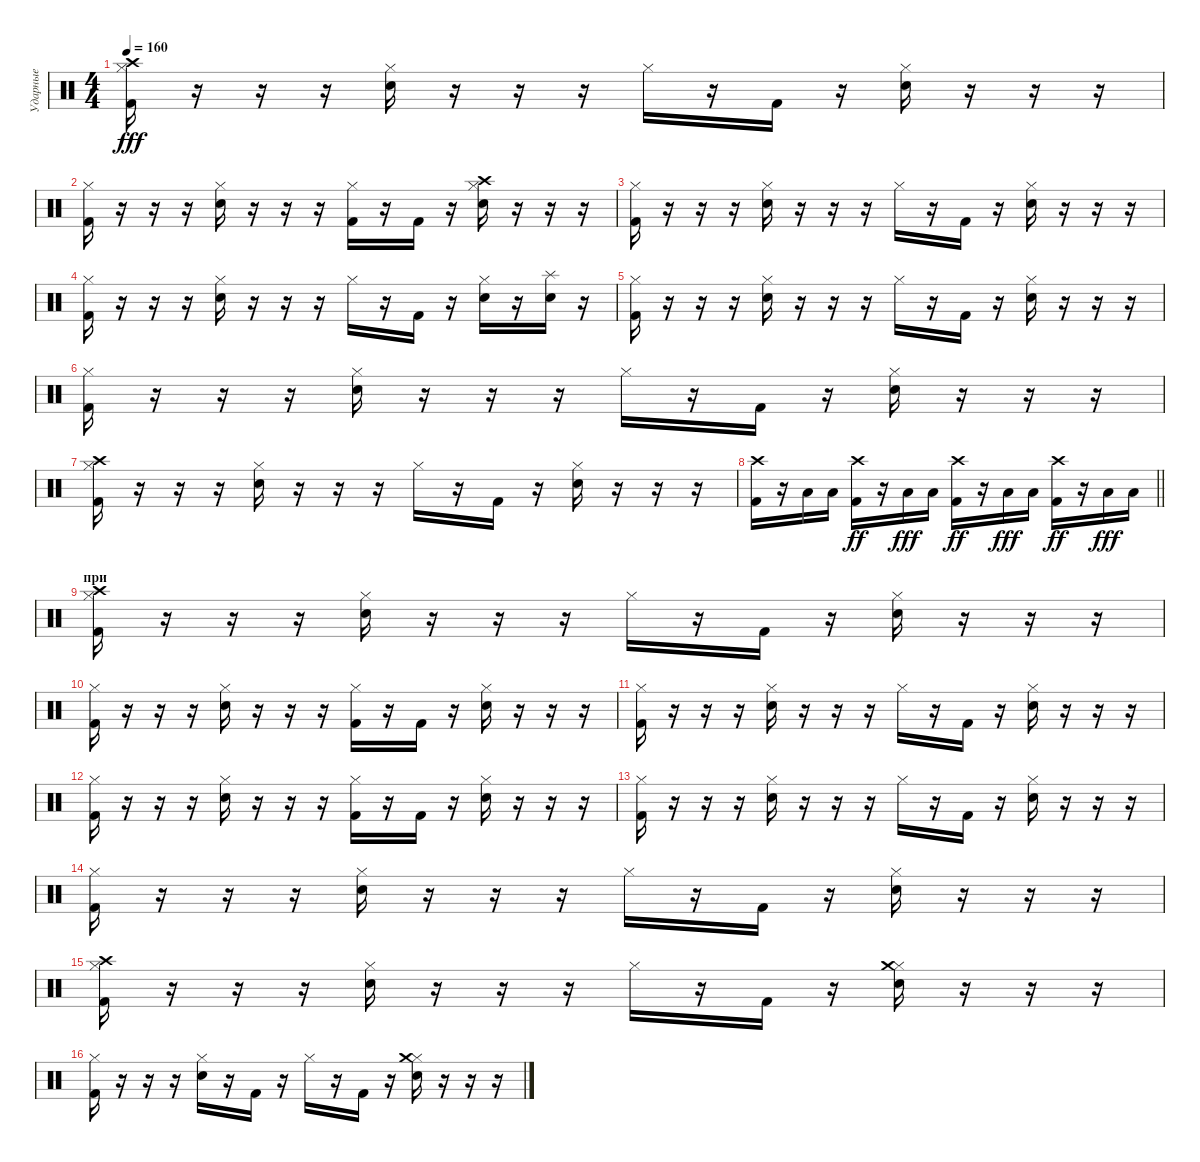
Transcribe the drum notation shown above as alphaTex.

\track ("Ударные" "Ударные") {instrument percussion}
\staff {score}
\articulation defaults
\ts (4 4)
\tempo 160
\clef neutral
\ks c
("Kick (hit) 2" "Hi-Hat (closed)" "Crash high (hit)").16{dy fff} r.16 r.16 r.16 ("Snare (hit) 2" "Hi-Hat (closed)").16 r.16 r.16 r.16 "Hi-Hat (closed)".16 r.16 "Kick (hit) 2".16 r.16 ("Snare (hit) 2" "Hi-Hat (closed)").16 r.16 r.16 r.16 |
("Kick (hit) 2" "Hi-Hat (closed)").16 r.16 r.16 r.16 ("Snare (hit) 2" "Hi-Hat (closed)").16 r.16 r.16 r.16 ("Kick (hit) 2" "Hi-Hat (closed)").16 r.16 "Kick (hit) 2".16 r.16 ("Snare (hit) 2" "Hi-Hat (closed)" "Crash high (hit)").16 r.16 r.16 r.16 |
("Kick (hit) 2" "Hi-Hat (closed)").16 r.16 r.16 r.16 ("Snare (hit) 2" "Hi-Hat (closed)").16 r.16 r.16 r.16 "Hi-Hat (closed)".16 r.16 "Kick (hit) 2".16 r.16 ("Snare (hit) 2" "Hi-Hat (closed)").16 r.16 r.16 r.16 |
("Kick (hit) 2" "Hi-Hat (closed)").16 r.16 r.16 r.16 ("Snare (hit) 2" "Hi-Hat (closed)").16 r.16 r.16 r.16 "Hi-Hat (closed)".16 r.16 "Kick (hit) 2".16 r.16 ("Snare (hit) 2" "Hi-Hat (closed)").16 r.16 ("Snare (hit) 2" "Splash (hit)").16 r.16 |
("Kick (hit) 2" "Hi-Hat (closed)").16 r.16 r.16 r.16 ("Snare (hit) 2" "Hi-Hat (closed)").16 r.16 r.16 r.16 "Hi-Hat (closed)".16 r.16 "Kick (hit) 2".16 r.16 ("Snare (hit) 2" "Hi-Hat (closed)").16 r.16 r.16 r.16 |
("Kick (hit) 2" "Hi-Hat (closed)").16 r.16 r.16 r.16 ("Snare (hit) 2" "Hi-Hat (closed)").16 r.16 r.16 r.16 "Hi-Hat (closed)".16 r.16 "Kick (hit) 2".16 r.16 ("Snare (hit) 2" "Hi-Hat (closed)").16 r.16 r.16 r.16 |
("Kick (hit) 2" "Hi-Hat (closed)" "Crash high (hit)").16 r.16 r.16 r.16 ("Snare (hit) 2" "Hi-Hat (closed)").16 r.16 r.16 r.16 "Hi-Hat (closed)".16 r.16 "Kick (hit) 2".16 r.16 ("Snare (hit) 2" "Hi-Hat (closed)").16 r.16 r.16 r.16 |
\barLineRight lightlight
("Crash high (hit)" "Kick (hit) 2").16 r.16 "Low Tom (hit)".16 "Low Tom (hit)".16 ("Kick (hit) 2" "Crash high (hit)").16{dy ff} r.16 "Low Tom (hit)".16{dy fff} "Low Tom (hit)".16 ("Kick (hit) 2" "Crash high (hit)").16{dy ff} r.16 "Low Tom (hit)".16{dy fff} "Low Tom (hit)".16 ("Kick (hit) 2" "Crash high (hit)").16{dy ff} r.16 "Low Tom (hit)".16{dy fff} "Low Tom (hit)".16 |
\section ("" "при")
("Kick (hit) 2" "Hi-Hat (closed)" "Crash high (hit)").16 r.16 r.16 r.16 ("Snare (hit) 2" "Hi-Hat (closed)").16 r.16 r.16 r.16 "Hi-Hat (closed)".16 r.16 "Kick (hit) 2".16 r.16 ("Snare (hit) 2" "Hi-Hat (closed)").16 r.16 r.16 r.16 |
("Kick (hit) 2" "Hi-Hat (closed)").16 r.16 r.16 r.16 ("Snare (hit) 2" "Hi-Hat (closed)").16 r.16 r.16 r.16 ("Kick (hit) 2" "Hi-Hat (closed)").16 r.16 "Kick (hit) 2".16 r.16 ("Snare (hit) 2" "Hi-Hat (closed)").16 r.16 r.16 r.16 |
("Kick (hit) 2" "Hi-Hat (closed)").16 r.16 r.16 r.16 ("Snare (hit) 2" "Hi-Hat (closed)").16 r.16 r.16 r.16 "Hi-Hat (closed)".16 r.16 "Kick (hit) 2".16 r.16 ("Snare (hit) 2" "Hi-Hat (closed)").16 r.16 r.16 r.16 |
("Kick (hit) 2" "Hi-Hat (closed)").16 r.16 r.16 r.16 ("Snare (hit) 2" "Hi-Hat (closed)").16 r.16 r.16 r.16 ("Kick (hit) 2" "Hi-Hat (closed)").16 r.16 "Kick (hit) 2".16 r.16 ("Snare (hit) 2" "Hi-Hat (closed)").16 r.16 r.16 r.16 |
("Kick (hit) 2" "Hi-Hat (closed)").16 r.16 r.16 r.16 ("Snare (hit) 2" "Hi-Hat (closed)").16 r.16 r.16 r.16 "Hi-Hat (closed)".16 r.16 "Kick (hit) 2".16 r.16 ("Snare (hit) 2" "Hi-Hat (closed)").16 r.16 r.16 r.16 |
("Kick (hit) 2" "Hi-Hat (closed)").16 r.16 r.16 r.16 ("Snare (hit) 2" "Hi-Hat (closed)").16 r.16 r.16 r.16 "Hi-Hat (closed)".16 r.16 "Kick (hit) 2".16 r.16 ("Snare (hit) 2" "Hi-Hat (closed)").16 r.16 r.16 r.16 |
("Kick (hit) 2" "Hi-Hat (closed)" "Crash high (hit)").16 r.16 r.16 r.16 ("Snare (hit) 2" "Hi-Hat (closed)").16 r.16 r.16 r.16 "Hi-Hat (closed)".16 r.16 "Kick (hit) 2".16 r.16 ("Snare (hit) 2" "Hi-Hat (closed)" "Crash medium (hit)").16 r.16 r.16 r.16 |
("Kick (hit) 2" "Hi-Hat (closed)").16 r.16 r.16 r.16 ("Snare (hit) 2" "Hi-Hat (closed)").16 r.16 "Kick (hit) 2".16 r.16 "Hi-Hat (closed)".16 r.16 "Kick (hit) 2".16 r.16 ("Snare (hit) 2" "Hi-Hat (closed)" "Crash medium (hit)").16 r.16 r.16 r.16
